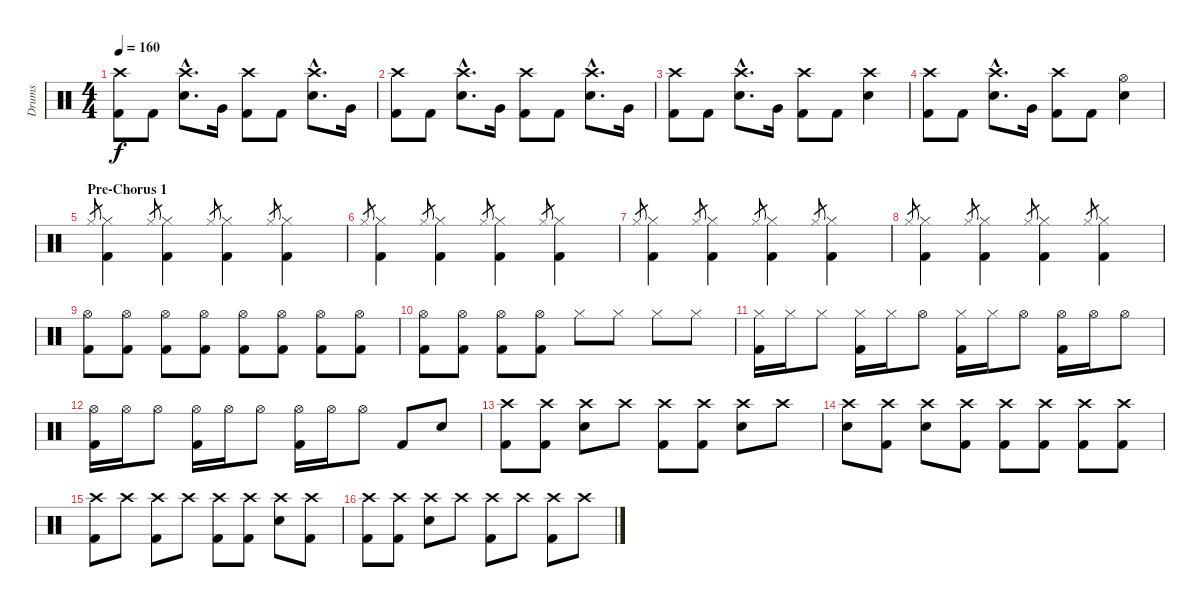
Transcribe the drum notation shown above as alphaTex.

\track ("Drums" "Drums") {instrument percussion}
\staff {score}
\articulation defaults
\ts (4 4)
\tempo 160
\clef neutral
\ks c
("Crash high (hit)" "Kick (hit) 2").8{dy f} "Kick (hit) 2".8 ("Crash high (hit)"{hac} "Electric Snare (hit)"{hac}).8{d} "Very Low Tom (hit)".16 ("Crash high (hit)" "Kick (hit) 2").8 "Kick (hit) 2".8 ("Crash high (hit)"{hac} "Electric Snare (hit)"{hac}).8{d} "Very Low Tom (hit)".16 |
("Crash high (hit)" "Kick (hit) 2").8 "Kick (hit) 2".8 ("Crash high (hit)"{hac} "Electric Snare (hit)"{hac}).8{d} "Very Low Tom (hit)".16 ("Crash high (hit)" "Kick (hit) 2").8 "Kick (hit) 2".8 ("Crash high (hit)"{hac} "Electric Snare (hit)"{hac}).8{d} "Very Low Tom (hit)".16 |
("Crash high (hit)" "Kick (hit) 2").8 "Kick (hit) 2".8 ("Crash high (hit)"{hac} "Electric Snare (hit)"{hac}).8{d} "Very Low Tom (hit)".16 ("Crash high (hit)" "Kick (hit) 2").8 "Kick (hit) 2".8 ("Crash high (hit)" "Electric Snare (hit)").4 |
("Crash high (hit)" "Kick (hit) 2").8 "Kick (hit) 2".8 ("Crash high (hit)"{hac} "Electric Snare (hit)"{hac}).8{d} "Very Low Tom (hit)".16 ("Crash high (hit)" "Kick (hit) 2").8 "Kick (hit) 2".8 ("Hi-Hat (open)" "Electric Snare (hit)").4 |
\section ("" "Pre-Chorus 1")
"Hi-Hat (closed)".8{gr} ("Hi-Hat (closed)" "Kick (hit) 2").4 "Hi-Hat (closed)".8{gr} ("Hi-Hat (closed)" "Kick (hit) 2").4 "Hi-Hat (closed)".8{gr} ("Hi-Hat (closed)" "Kick (hit) 2").4 "Hi-Hat (closed)".8{gr} ("Hi-Hat (closed)" "Kick (hit) 2").4 |
"Hi-Hat (closed)".8{gr} ("Hi-Hat (closed)" "Kick (hit) 2").4 "Hi-Hat (closed)".8{gr} ("Hi-Hat (closed)" "Kick (hit) 2").4 "Hi-Hat (closed)".8{gr} ("Hi-Hat (closed)" "Kick (hit) 2").4 "Hi-Hat (closed)".8{gr} ("Hi-Hat (closed)" "Kick (hit) 2").4 |
"Hi-Hat (closed)".8{gr} ("Hi-Hat (closed)" "Kick (hit) 2").4 "Hi-Hat (closed)".8{gr} ("Hi-Hat (closed)" "Kick (hit) 2").4 "Hi-Hat (closed)".8{gr} ("Hi-Hat (closed)" "Kick (hit) 2").4 "Hi-Hat (closed)".8{gr} ("Hi-Hat (closed)" "Kick (hit) 2").4 |
"Hi-Hat (closed)".8{gr} ("Hi-Hat (closed)" "Kick (hit) 2").4 "Hi-Hat (closed)".8{gr} ("Hi-Hat (closed)" "Kick (hit) 2").4 "Hi-Hat (closed)".8{gr} ("Hi-Hat (closed)" "Kick (hit) 2").4 "Hi-Hat (closed)".8{gr} ("Hi-Hat (closed)" "Kick (hit) 2").4 |
("Hi-Hat (open)" "Kick (hit) 2").8 ("Hi-Hat (open)" "Kick (hit) 2").8 ("Hi-Hat (open)" "Kick (hit) 2").8 ("Hi-Hat (open)" "Kick (hit) 2").8 ("Hi-Hat (open)" "Kick (hit) 2").8 ("Hi-Hat (open)" "Kick (hit) 2").8 ("Hi-Hat (open)" "Kick (hit) 2").8 ("Hi-Hat (open)" "Kick (hit) 2").8 |
("Hi-Hat (open)" "Kick (hit) 2").8 ("Hi-Hat (open)" "Kick (hit) 2").8 ("Hi-Hat (open)" "Kick (hit) 2").8 ("Hi-Hat (open)" "Kick (hit) 2").8 "Hi-Hat (closed)".8 "Hi-Hat (closed)".8 "Hi-Hat (closed)".8 "Hi-Hat (closed)".8 |
("Hi-Hat (closed)" "Kick (hit) 2").16 "Hi-Hat (closed)".16 "Hi-Hat (closed)".8 ("Hi-Hat (closed)" "Kick (hit) 2").16 "Hi-Hat (closed)".16 "Hi-Hat (open)".8 ("Hi-Hat (closed)" "Kick (hit) 2").16 "Hi-Hat (closed)".16 "Hi-Hat (open)".8 ("Hi-Hat (open)" "Kick (hit) 2").16 "Hi-Hat (open)".16 "Hi-Hat (open)".8 |
("Hi-Hat (open)" "Kick (hit) 2").16 "Hi-Hat (open)".16 "Hi-Hat (open)".8 ("Hi-Hat (open)" "Kick (hit) 2").16 "Hi-Hat (open)".16 "Hi-Hat (open)".8 ("Hi-Hat (open)" "Kick (hit) 2").16 "Hi-Hat (open)".16 "Hi-Hat (open)".8 "Kick (hit) 2".8 "Electric Snare (hit)".8 |
("Crash high (hit)" "Kick (hit) 2").8 ("Crash high (hit)" "Kick (hit) 2").8 ("Crash high (hit)" "Electric Snare (hit)").8 "Crash high (hit)".8 ("Crash high (hit)" "Kick (hit) 2").8 ("Crash high (hit)" "Kick (hit) 2").8 ("Crash high (hit)" "Electric Snare (hit)").8 "Crash high (hit)".8 |
("Crash high (hit)" "Electric Snare (hit)").8 ("Crash high (hit)" "Kick (hit) 2").8 ("Crash high (hit)" "Electric Snare (hit)").8 ("Crash high (hit)" "Kick (hit) 2").8 ("Crash high (hit)" "Kick (hit) 2").8 ("Crash high (hit)" "Kick (hit) 2").8 ("Crash high (hit)" "Kick (hit) 2").8 ("Crash high (hit)" "Kick (hit) 2").8 |
("Crash high (hit)" "Kick (hit) 2").8 "Crash high (hit)".8 ("Crash high (hit)" "Kick (hit) 2").8 "Crash high (hit)".8 ("Crash high (hit)" "Kick (hit) 2").8 ("Crash high (hit)" "Kick (hit) 2").8 ("Crash high (hit)" "Electric Snare (hit)").8 ("Crash high (hit)" "Kick (hit) 2").8 |
("Crash high (hit)" "Kick (hit) 2").8 ("Crash high (hit)" "Kick (hit) 2").8 ("Crash high (hit)" "Electric Snare (hit)").8 "Crash high (hit)".8 ("Crash high (hit)" "Kick (hit) 2").8 "Crash high (hit)".8 ("Crash high (hit)" "Kick (hit) 2").8 "Crash high (hit)".8
